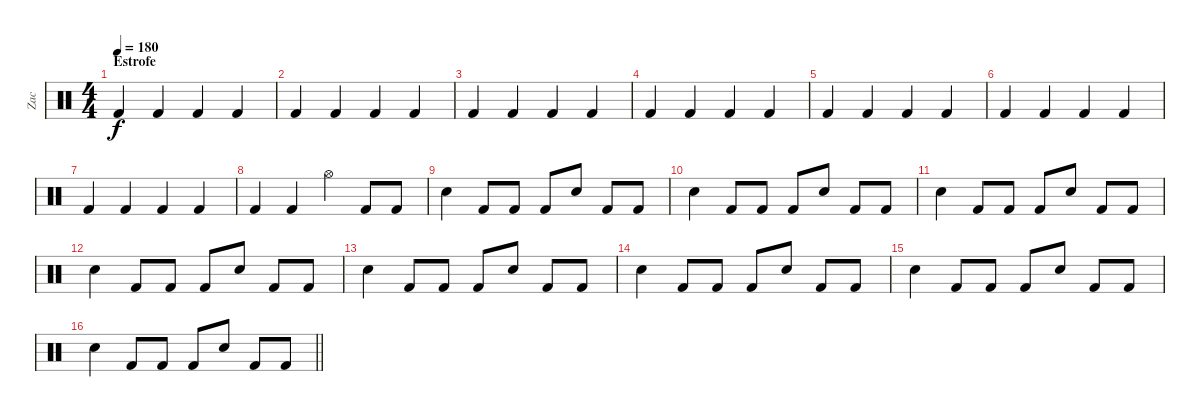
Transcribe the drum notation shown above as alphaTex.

\track ("Zac" "Zac") {instrument percussion}
\staff {score}
\articulation defaults
\ts (4 4)
\section ("" "Estrofe")
\tempo 180
\clef neutral
\ks c "Kick (hit) 2".4{dy f} "Kick (hit) 2".4 "Kick (hit) 2".4 "Kick (hit) 2".4
|
"Kick (hit) 2".4 "Kick (hit) 2".4 "Kick (hit) 2".4 "Kick (hit) 2".4 |
"Kick (hit) 2".4 "Kick (hit) 2".4 "Kick (hit) 2".4 "Kick (hit) 2".4 |
"Kick (hit) 2".4 "Kick (hit) 2".4 "Kick (hit) 2".4 "Kick (hit) 2".4 |
"Kick (hit) 2".4 "Kick (hit) 2".4 "Kick (hit) 2".4 "Kick (hit) 2".4 |
"Kick (hit) 2".4 "Kick (hit) 2".4 "Kick (hit) 2".4 "Kick (hit) 2".4 |
"Kick (hit) 2".4 "Kick (hit) 2".4 "Kick (hit) 2".4 "Kick (hit) 2".4 |
"Kick (hit) 2".4 "Kick (hit) 2".4 "Hi-Hat (open)".4 "Kick (hit) 2".8 "Kick (hit) 2".8 |
"Electric Snare (hit)".4 "Kick (hit) 2".8 "Kick (hit) 2".8 "Kick (hit) 2".8 "Electric Snare (hit)".8 "Kick (hit) 2".8 "Kick (hit) 2".8 |
"Electric Snare (hit)".4 "Kick (hit) 2".8 "Kick (hit) 2".8 "Kick (hit) 2".8 "Electric Snare (hit)".8 "Kick (hit) 2".8 "Kick (hit) 2".8 |
"Electric Snare (hit)".4 "Kick (hit) 2".8 "Kick (hit) 2".8 "Kick (hit) 2".8 "Electric Snare (hit)".8 "Kick (hit) 2".8 "Kick (hit) 2".8 |
"Electric Snare (hit)".4 "Kick (hit) 2".8 "Kick (hit) 2".8 "Kick (hit) 2".8 "Electric Snare (hit)".8 "Kick (hit) 2".8 "Kick (hit) 2".8 |
"Electric Snare (hit)".4 "Kick (hit) 2".8 "Kick (hit) 2".8 "Kick (hit) 2".8 "Electric Snare (hit)".8 "Kick (hit) 2".8 "Kick (hit) 2".8 |
"Electric Snare (hit)".4 "Kick (hit) 2".8 "Kick (hit) 2".8 "Kick (hit) 2".8 "Electric Snare (hit)".8 "Kick (hit) 2".8 "Kick (hit) 2".8 |
"Electric Snare (hit)".4 "Kick (hit) 2".8 "Kick (hit) 2".8 "Kick (hit) 2".8 "Electric Snare (hit)".8 "Kick (hit) 2".8 "Kick (hit) 2".8 |
\barLineRight lightlight "Electric Snare (hit)".4 "Kick (hit) 2".8 "Kick (hit) 2".8 "Kick (hit) 2".8 "Electric Snare (hit)".8 "Kick (hit) 2".8 "Kick (hit) 2".8
